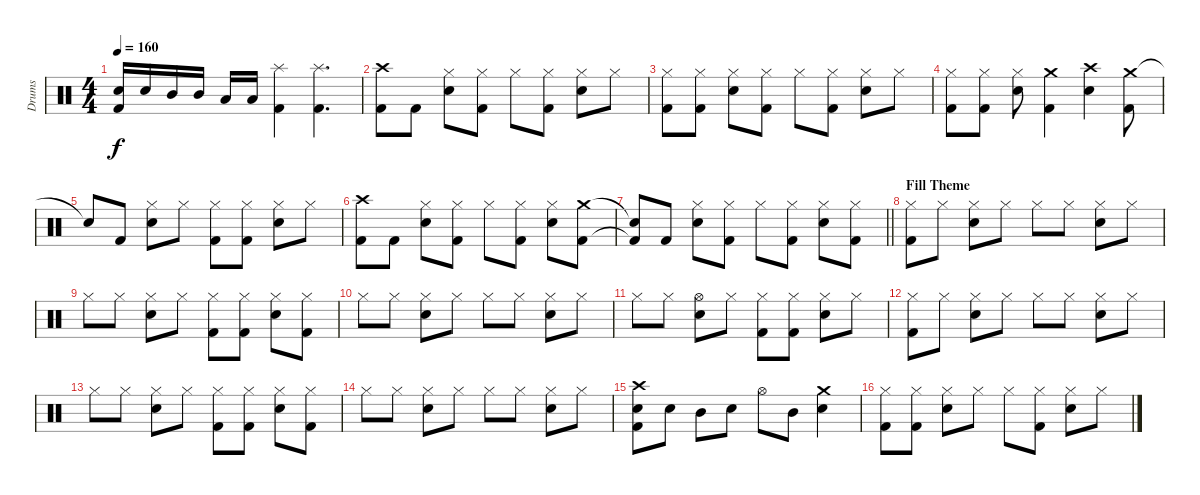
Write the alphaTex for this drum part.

\track ("Drums" "Drums") {instrument percussion}
\staff {score}
\articulation defaults
\ts (4 4)
\tempo 160
\clef neutral
\ks c
("Snare (hit) 2" "Kick (hit) 2").16{dy f} "Snare (hit) 2".16 "Mid Tom (hit)".16 "Mid Tom (hit)".16 "Low Tom (hit)".16 "Low Tom (hit)".16 ("Splash (hit)" "Kick (hit) 2").4 ("Splash (hit)" "Kick (hit) 2").4{d} |
("Crash high (hit)" "Kick (hit) 2").8 "Kick (hit) 2".8 ("Hi-Hat (closed)" "Snare (hit) 2").8 ("Hi-Hat (closed)" "Kick (hit) 2").8 "Hi-Hat (closed)".8 ("Hi-Hat (closed)" "Kick (hit) 2").8 ("Hi-Hat (closed)" "Snare (hit) 2").8 "Hi-Hat (closed)".8 |
("Hi-Hat (closed)" "Kick (hit) 2").8 ("Hi-Hat (closed)" "Kick (hit) 2").8 ("Hi-Hat (closed)" "Snare (hit) 2").8 ("Hi-Hat (closed)" "Kick (hit) 2").8 "Hi-Hat (closed)".8 ("Hi-Hat (closed)" "Kick (hit) 2").8 ("Hi-Hat (closed)" "Snare (hit) 2").8 "Hi-Hat (closed)".8 |
("Hi-Hat (closed)" "Kick (hit) 2").8 ("Hi-Hat (closed)" "Kick (hit) 2").8 ("Hi-Hat (closed)" "Snare (hit) 2").8 ("Crash medium (hit)" "Kick (hit) 2").4 ("Crash high (hit)" "Snare (hit) 2").4 ("Crash medium (hit)" "Kick (hit) 2").8 |
"Snare (hit)"{t}.8 "Kick (hit) 2".8 ("Hi-Hat (closed)" "Snare (hit) 2").8 "Hi-Hat (closed)".8 ("Hi-Hat (closed)" "Kick (hit) 2").8 ("Hi-Hat (closed)" "Kick (hit) 2").8 ("Hi-Hat (closed)" "Snare (hit) 2").8 "Hi-Hat (closed)".8 |
("Crash high (hit)" "Kick (hit) 2").8 "Kick (hit) 2".8 ("Hi-Hat (closed)" "Snare (hit) 2").8 ("Hi-Hat (closed)" "Kick (hit) 2").8 "Hi-Hat (closed)".8 ("Hi-Hat (closed)" "Kick (hit) 2").8 ("Hi-Hat (closed)" "Snare (hit) 2").8 ("Crash medium (hit)" "Kick (hit) 2").8 |
\barLineRight lightlight
("Snare (hit)"{t} "Kick (hit) 2"{t}).8 "Kick (hit) 2".8 ("Hi-Hat (closed)" "Snare (hit) 2").8 ("Hi-Hat (closed)" "Kick (hit) 2").8 "Hi-Hat (closed)".8 ("Hi-Hat (closed)" "Kick (hit) 2").8 ("Hi-Hat (closed)" "Snare (hit) 2").8 ("Hi-Hat (closed)" "Kick (hit) 2").8 |
\section ("" "Fill Theme")
("Hi-Hat (closed)" "Kick (hit) 2").8 "Hi-Hat (closed)".8 ("Hi-Hat (closed)" "Snare (hit) 2").8 "Hi-Hat (closed)".8 "Hi-Hat (closed)".8 "Hi-Hat (closed)".8 ("Hi-Hat (closed)" "Snare (hit) 2").8 "Hi-Hat (closed)".8 |
"Hi-Hat (closed)".8 "Hi-Hat (closed)".8 ("Hi-Hat (closed)" "Snare (hit) 2").8 "Hi-Hat (closed)".8 ("Hi-Hat (closed)" "Kick (hit) 2").8 ("Hi-Hat (closed)" "Kick (hit) 2").8 ("Hi-Hat (closed)" "Snare (hit) 2").8 ("Hi-Hat (closed)" "Kick (hit) 2").8 |
"Hi-Hat (closed)".8 "Hi-Hat (closed)".8 ("Hi-Hat (closed)" "Snare (hit) 2").8 "Hi-Hat (closed)".8 "Hi-Hat (closed)".8 "Hi-Hat (closed)".8 ("Hi-Hat (closed)" "Snare (hit) 2").8 "Hi-Hat (closed)".8 |
"Hi-Hat (closed)".8 "Hi-Hat (closed)".8 ("Hi-Hat (open)" "Snare (hit) 2").8 "Hi-Hat (closed)".8 ("Hi-Hat (closed)" "Kick (hit) 2").8 ("Hi-Hat (closed)" "Kick (hit) 2").8 ("Hi-Hat (closed)" "Snare (hit) 2").8 "Hi-Hat (closed)".8 |
("Hi-Hat (closed)" "Kick (hit) 2").8 "Hi-Hat (closed)".8 ("Hi-Hat (closed)" "Snare (hit) 2").8 "Hi-Hat (closed)".8 "Hi-Hat (closed)".8 "Hi-Hat (closed)".8 ("Hi-Hat (closed)" "Snare (hit) 2").8 "Hi-Hat (closed)".8 |
"Hi-Hat (closed)".8 "Hi-Hat (closed)".8 ("Hi-Hat (closed)" "Snare (hit) 2").8 "Hi-Hat (closed)".8 ("Hi-Hat (closed)" "Kick (hit) 2").8 ("Hi-Hat (closed)" "Kick (hit) 2").8 ("Hi-Hat (closed)" "Snare (hit) 2").8 ("Hi-Hat (closed)" "Kick (hit) 2").8 |
"Hi-Hat (closed)".8 "Hi-Hat (closed)".8 ("Hi-Hat (closed)" "Snare (hit) 2").8 "Hi-Hat (closed)".8 "Hi-Hat (closed)".8 "Hi-Hat (closed)".8 ("Hi-Hat (closed)" "Snare (hit) 2").8 "Hi-Hat (closed)".8 |
("Crash high (hit)" "Snare (hit) 2" "Kick (hit) 2").8 "Snare (hit) 2".8 "Mid Tom (hit)".8 "Snare (hit) 2".8 "Hi-Hat (open)".8 "Mid Tom (hit)".8 ("Crash medium (hit)" "Snare (hit) 2").4 |
("Hi-Hat (closed)" "Kick (hit) 2").8 ("Hi-Hat (closed)" "Kick (hit) 2").8 ("Hi-Hat (closed)" "Snare (hit) 2").8 "Hi-Hat (closed)".8 "Hi-Hat (closed)".8 ("Hi-Hat (closed)" "Kick (hit) 2").8 ("Hi-Hat (closed)" "Snare (hit) 2").8 "Hi-Hat (closed)".8
